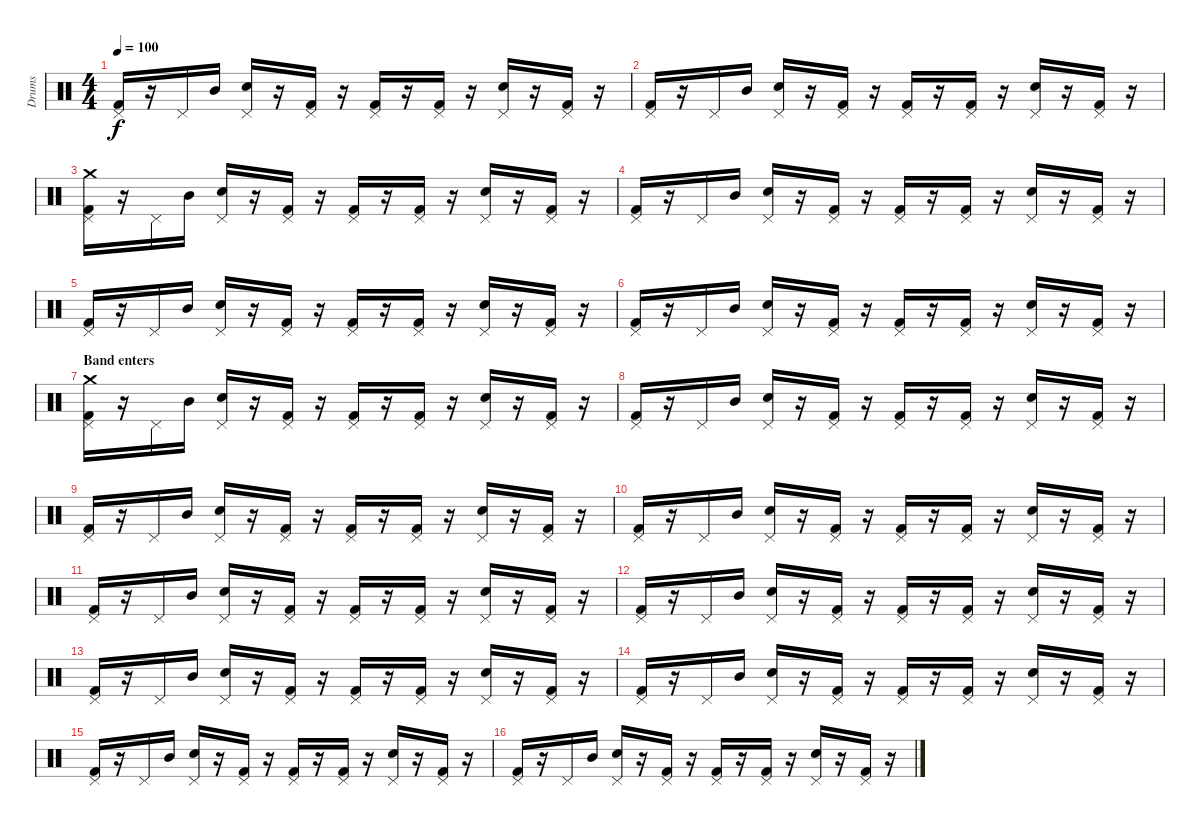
\track ("Drums" "Drums") {instrument percussion}
\staff {score}
\articulation defaults
\ts (4 4)
\tempo 100
\clef neutral
\ks c
("Kick (hit) 2" "Pedal Hi-Hat (hit)").16{dy f} r.16 "Pedal Hi-Hat (hit)".16 "Mid Tom (hit)".16 ("Pedal Hi-Hat (hit)" "Electric Snare (hit)").16 r.16 ("Kick (hit) 2" "Pedal Hi-Hat (hit)").16 r.16 ("Kick (hit) 2" "Pedal Hi-Hat (hit)").16 r.16 ("Kick (hit) 2" "Pedal Hi-Hat (hit)").16 r.16 ("Pedal Hi-Hat (hit)" "Electric Snare (hit)").16 r.16 ("Kick (hit) 2" "Pedal Hi-Hat (hit)").16 r.16 |
("Kick (hit) 2" "Pedal Hi-Hat (hit)").16 r.16 "Pedal Hi-Hat (hit)".16 "Mid Tom (hit)".16 ("Pedal Hi-Hat (hit)" "Electric Snare (hit)").16 r.16 ("Kick (hit) 2" "Pedal Hi-Hat (hit)").16 r.16 ("Kick (hit) 2" "Pedal Hi-Hat (hit)").16 r.16 ("Kick (hit) 2" "Pedal Hi-Hat (hit)").16 r.16 ("Pedal Hi-Hat (hit)" "Electric Snare (hit)").16 r.16 ("Kick (hit) 2" "Pedal Hi-Hat (hit)").16 r.16 |
("Kick (hit) 2" "Pedal Hi-Hat (hit)" "Crash medium (hit)").16 r.16 "Pedal Hi-Hat (hit)".16 "Mid Tom (hit)".16 ("Pedal Hi-Hat (hit)" "Electric Snare (hit)").16 r.16 ("Kick (hit) 2" "Pedal Hi-Hat (hit)").16 r.16 ("Kick (hit) 2" "Pedal Hi-Hat (hit)").16 r.16 ("Kick (hit) 2" "Pedal Hi-Hat (hit)").16 r.16 ("Pedal Hi-Hat (hit)" "Electric Snare (hit)").16 r.16 ("Kick (hit) 2" "Pedal Hi-Hat (hit)").16 r.16 |
("Kick (hit) 2" "Pedal Hi-Hat (hit)").16 r.16 "Pedal Hi-Hat (hit)".16 "Mid Tom (hit)".16 ("Pedal Hi-Hat (hit)" "Electric Snare (hit)").16 r.16 ("Kick (hit) 2" "Pedal Hi-Hat (hit)").16 r.16 ("Kick (hit) 2" "Pedal Hi-Hat (hit)").16 r.16 ("Kick (hit) 2" "Pedal Hi-Hat (hit)").16 r.16 ("Pedal Hi-Hat (hit)" "Electric Snare (hit)").16 r.16 ("Kick (hit) 2" "Pedal Hi-Hat (hit)").16 r.16 |
("Kick (hit) 2" "Pedal Hi-Hat (hit)").16 r.16 "Pedal Hi-Hat (hit)".16 "Mid Tom (hit)".16 ("Pedal Hi-Hat (hit)" "Electric Snare (hit)").16 r.16 ("Kick (hit) 2" "Pedal Hi-Hat (hit)").16 r.16 ("Kick (hit) 2" "Pedal Hi-Hat (hit)").16 r.16 ("Kick (hit) 2" "Pedal Hi-Hat (hit)").16 r.16 ("Pedal Hi-Hat (hit)" "Electric Snare (hit)").16 r.16 ("Kick (hit) 2" "Pedal Hi-Hat (hit)").16 r.16 |
("Kick (hit) 2" "Pedal Hi-Hat (hit)").16 r.16 "Pedal Hi-Hat (hit)".16 "Mid Tom (hit)".16 ("Pedal Hi-Hat (hit)" "Electric Snare (hit)").16 r.16 ("Kick (hit) 2" "Pedal Hi-Hat (hit)").16 r.16 ("Kick (hit) 2" "Pedal Hi-Hat (hit)").16 r.16 ("Kick (hit) 2" "Pedal Hi-Hat (hit)").16 r.16 ("Pedal Hi-Hat (hit)" "Electric Snare (hit)").16 r.16 ("Kick (hit) 2" "Pedal Hi-Hat (hit)").16 r.16 |
\section ("" "Band enters")
("Kick (hit) 2" "Pedal Hi-Hat (hit)" "Crash medium (hit)").16{volume 12} r.16 "Pedal Hi-Hat (hit)".16 "Mid Tom (hit)".16 ("Pedal Hi-Hat (hit)" "Electric Snare (hit)").16 r.16 ("Kick (hit) 2" "Pedal Hi-Hat (hit)").16 r.16 ("Kick (hit) 2" "Pedal Hi-Hat (hit)").16 r.16 ("Kick (hit) 2" "Pedal Hi-Hat (hit)").16 r.16 ("Pedal Hi-Hat (hit)" "Electric Snare (hit)").16 r.16 ("Kick (hit) 2" "Pedal Hi-Hat (hit)").16 r.16 |
("Kick (hit) 2" "Pedal Hi-Hat (hit)").16 r.16 "Pedal Hi-Hat (hit)".16 "Mid Tom (hit)".16 ("Pedal Hi-Hat (hit)" "Electric Snare (hit)").16 r.16 ("Kick (hit) 2" "Pedal Hi-Hat (hit)").16 r.16 ("Kick (hit) 2" "Pedal Hi-Hat (hit)").16 r.16 ("Kick (hit) 2" "Pedal Hi-Hat (hit)").16 r.16 ("Pedal Hi-Hat (hit)" "Electric Snare (hit)").16 r.16 ("Kick (hit) 2" "Pedal Hi-Hat (hit)").16 r.16 |
("Kick (hit) 2" "Pedal Hi-Hat (hit)").16 r.16 "Pedal Hi-Hat (hit)".16 "Mid Tom (hit)".16 ("Pedal Hi-Hat (hit)" "Electric Snare (hit)").16 r.16 ("Kick (hit) 2" "Pedal Hi-Hat (hit)").16 r.16 ("Kick (hit) 2" "Pedal Hi-Hat (hit)").16 r.16 ("Kick (hit) 2" "Pedal Hi-Hat (hit)").16 r.16 ("Pedal Hi-Hat (hit)" "Electric Snare (hit)").16 r.16 ("Kick (hit) 2" "Pedal Hi-Hat (hit)").16 r.16 |
("Kick (hit) 2" "Pedal Hi-Hat (hit)").16 r.16 "Pedal Hi-Hat (hit)".16 "Mid Tom (hit)".16 ("Pedal Hi-Hat (hit)" "Electric Snare (hit)").16 r.16 ("Kick (hit) 2" "Pedal Hi-Hat (hit)").16 r.16 ("Kick (hit) 2" "Pedal Hi-Hat (hit)").16 r.16 ("Kick (hit) 2" "Pedal Hi-Hat (hit)").16 r.16 ("Pedal Hi-Hat (hit)" "Electric Snare (hit)").16 r.16 ("Kick (hit) 2" "Pedal Hi-Hat (hit)").16 r.16 |
("Kick (hit) 2" "Pedal Hi-Hat (hit)").16 r.16 "Pedal Hi-Hat (hit)".16 "Mid Tom (hit)".16 ("Pedal Hi-Hat (hit)" "Electric Snare (hit)").16 r.16 ("Kick (hit) 2" "Pedal Hi-Hat (hit)").16 r.16 ("Kick (hit) 2" "Pedal Hi-Hat (hit)").16 r.16 ("Kick (hit) 2" "Pedal Hi-Hat (hit)").16 r.16 ("Pedal Hi-Hat (hit)" "Electric Snare (hit)").16 r.16 ("Kick (hit) 2" "Pedal Hi-Hat (hit)").16 r.16 |
("Kick (hit) 2" "Pedal Hi-Hat (hit)").16 r.16 "Pedal Hi-Hat (hit)".16 "Mid Tom (hit)".16 ("Pedal Hi-Hat (hit)" "Electric Snare (hit)").16 r.16 ("Kick (hit) 2" "Pedal Hi-Hat (hit)").16 r.16 ("Kick (hit) 2" "Pedal Hi-Hat (hit)").16 r.16 ("Kick (hit) 2" "Pedal Hi-Hat (hit)").16 r.16 ("Pedal Hi-Hat (hit)" "Electric Snare (hit)").16 r.16 ("Kick (hit) 2" "Pedal Hi-Hat (hit)").16 r.16 |
("Kick (hit) 2" "Pedal Hi-Hat (hit)").16 r.16 "Pedal Hi-Hat (hit)".16 "Mid Tom (hit)".16 ("Pedal Hi-Hat (hit)" "Electric Snare (hit)").16 r.16 ("Kick (hit) 2" "Pedal Hi-Hat (hit)").16 r.16 ("Kick (hit) 2" "Pedal Hi-Hat (hit)").16 r.16 ("Kick (hit) 2" "Pedal Hi-Hat (hit)").16 r.16 ("Pedal Hi-Hat (hit)" "Electric Snare (hit)").16 r.16 ("Kick (hit) 2" "Pedal Hi-Hat (hit)").16 r.16 |
("Kick (hit) 2" "Pedal Hi-Hat (hit)").16 r.16 "Pedal Hi-Hat (hit)".16 "Mid Tom (hit)".16 ("Pedal Hi-Hat (hit)" "Electric Snare (hit)").16 r.16 ("Kick (hit) 2" "Pedal Hi-Hat (hit)").16 r.16 ("Kick (hit) 2" "Pedal Hi-Hat (hit)").16 r.16 ("Kick (hit) 2" "Pedal Hi-Hat (hit)").16 r.16 ("Pedal Hi-Hat (hit)" "Electric Snare (hit)").16 r.16 ("Kick (hit) 2" "Pedal Hi-Hat (hit)").16 r.16 |
("Kick (hit) 2" "Pedal Hi-Hat (hit)").16 r.16 "Pedal Hi-Hat (hit)".16 "Mid Tom (hit)".16 ("Pedal Hi-Hat (hit)" "Electric Snare (hit)").16 r.16 ("Kick (hit) 2" "Pedal Hi-Hat (hit)").16 r.16 ("Kick (hit) 2" "Pedal Hi-Hat (hit)").16 r.16 ("Kick (hit) 2" "Pedal Hi-Hat (hit)").16 r.16 ("Pedal Hi-Hat (hit)" "Electric Snare (hit)").16 r.16 ("Kick (hit) 2" "Pedal Hi-Hat (hit)").16 r.16 |
("Kick (hit) 2" "Pedal Hi-Hat (hit)").16 r.16 "Pedal Hi-Hat (hit)".16 "Mid Tom (hit)".16 ("Pedal Hi-Hat (hit)" "Electric Snare (hit)").16 r.16 ("Kick (hit) 2" "Pedal Hi-Hat (hit)").16 r.16 ("Kick (hit) 2" "Pedal Hi-Hat (hit)").16 r.16 ("Kick (hit) 2" "Pedal Hi-Hat (hit)").16 r.16 ("Pedal Hi-Hat (hit)" "Electric Snare (hit)").16 r.16 ("Kick (hit) 2" "Pedal Hi-Hat (hit)").16 r.16
